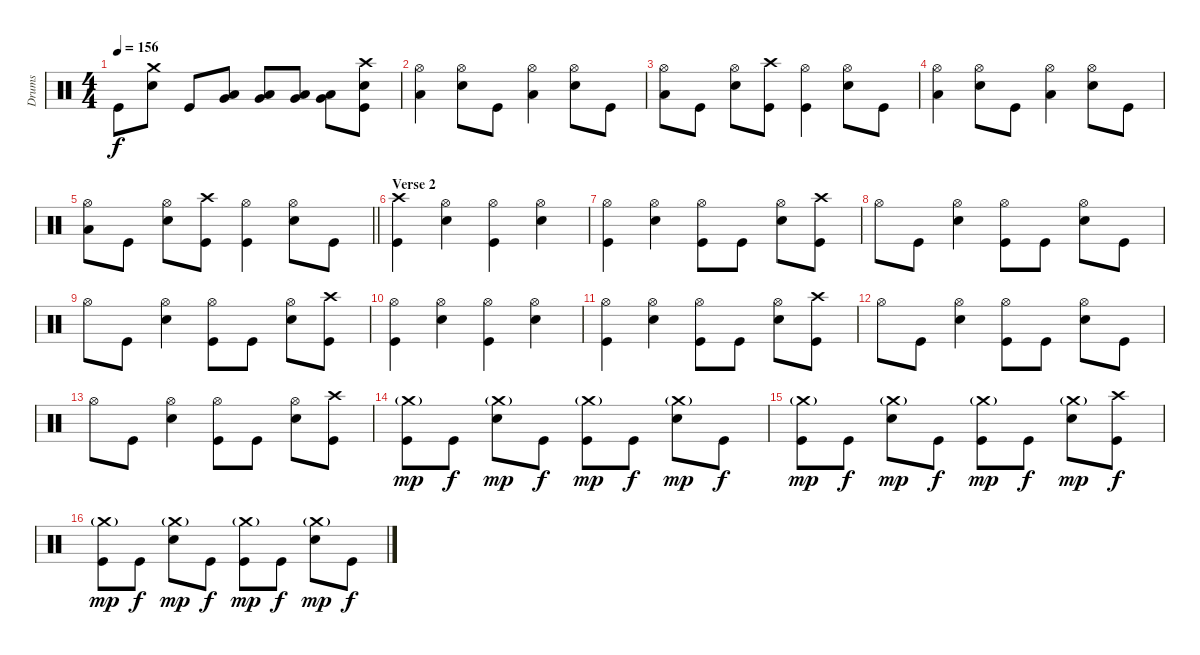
\track ("Drums" "Drums") {instrument percussion}
\staff {score}
\articulation defaults
\ts (4 4)
\tempo 156
\clef neutral
\ks c "Kick (hit)".8{dy f}
("Crash medium (hit)" "Snare (hit) 2").8 "Kick (hit)".8 ("Low Tom (hit)" "Very Low Tom (hit)").8 ("Low Tom (hit)" "Very Low Tom (hit)").8 ("Low Tom (hit)" "Very Low Tom (hit)").8 ("Low Tom (hit)" "Very Low Tom (hit)").8 ("Crash high (hit)" "Snare (hit) 2" "Kick (hit)").8 |
("Hi-Hat (open)" "Low Tom (hit)").4 ("Hi-Hat (open)" "Snare (hit) 2").8 "Kick (hit)".8 ("Hi-Hat (open)" "Low Tom (hit)").4 ("Hi-Hat (open)" "Snare (hit) 2").8 "Kick (hit)".8 |
("Hi-Hat (open)" "Low Tom (hit)").8 "Kick (hit)".8 ("Hi-Hat (open)" "Snare (hit) 2").8 ("Crash high (hit)" "Kick (hit)").8 ("Hi-Hat (open)" "Kick (hit)").4 ("Hi-Hat (open)" "Snare (hit) 2").8 "Kick (hit)".8 |
("Hi-Hat (open)" "Low Tom (hit)").4 ("Hi-Hat (open)" "Snare (hit) 2").8 "Kick (hit)".8 ("Hi-Hat (open)" "Low Tom (hit)").4 ("Hi-Hat (open)" "Snare (hit) 2").8 "Kick (hit)".8 |
\barLineRight lightlight
("Hi-Hat (open)" "Low Tom (hit)").8 "Kick (hit)".8 ("Hi-Hat (open)" "Snare (hit) 2").8 ("Crash high (hit)" "Kick (hit)").8 ("Hi-Hat (open)" "Kick (hit)").4 ("Hi-Hat (open)" "Snare (hit) 2").8 "Kick (hit)".8 |
\section ("" "Verse 2")
("Crash high (hit)" "Kick (hit)").4 ("Hi-Hat (open)" "Snare (hit) 2").4 ("Hi-Hat (open)" "Kick (hit)").4 ("Hi-Hat (open)" "Snare (hit) 2").4 |
("Hi-Hat (open)" "Kick (hit)").4 ("Hi-Hat (open)" "Snare (hit) 2").4 ("Hi-Hat (open)" "Kick (hit)").8 "Kick (hit)".8 ("Hi-Hat (open)" "Snare (hit) 2").8 ("Crash high (hit)" "Kick (hit)").8 |
"Hi-Hat (open)".8 "Kick (hit)".8 ("Hi-Hat (open)" "Snare (hit) 2").4 ("Hi-Hat (open)" "Kick (hit)").8 "Kick (hit)".8 ("Hi-Hat (open)" "Snare (hit) 2").8 "Kick (hit)".8 |
"Hi-Hat (open)".8 "Kick (hit)".8 ("Hi-Hat (open)" "Snare (hit) 2").4 ("Hi-Hat (open)" "Kick (hit)").8 "Kick (hit)".8 ("Hi-Hat (open)" "Snare (hit) 2").8 ("Crash high (hit)" "Kick (hit)").8 |
("Hi-Hat (open)" "Kick (hit)").4 ("Hi-Hat (open)" "Snare (hit) 2").4 ("Hi-Hat (open)" "Kick (hit)").4 ("Hi-Hat (open)" "Snare (hit) 2").4 |
("Hi-Hat (open)" "Kick (hit)").4 ("Hi-Hat (open)" "Snare (hit) 2").4 ("Hi-Hat (open)" "Kick (hit)").8 "Kick (hit)".8 ("Hi-Hat (open)" "Snare (hit) 2").8 ("Crash high (hit)" "Kick (hit)").8 |
"Hi-Hat (open)".8 "Kick (hit)".8 ("Hi-Hat (open)" "Snare (hit) 2").4 ("Hi-Hat (open)" "Kick (hit)").8 "Kick (hit)".8 ("Hi-Hat (open)" "Snare (hit) 2").8 "Kick (hit)".8 |
"Hi-Hat (open)".8 "Kick (hit)".8 ("Hi-Hat (open)" "Snare (hit) 2").4 ("Hi-Hat (open)" "Kick (hit)").8 "Kick (hit)".8 ("Hi-Hat (open)" "Snare (hit) 2").8 ("Crash high (hit)" "Kick (hit)").8 |
("Crash medium (hit)"{g} "Kick (hit)").8{dy mp} "Kick (hit)".8{dy f} ("Crash medium (hit)"{g} "Snare (hit) 2").8{dy mp} "Kick (hit)".8{dy f} ("Crash medium (hit)"{g} "Kick (hit)").8{dy mp} "Kick (hit)".8{dy f} ("Crash medium (hit)"{g} "Snare (hit) 2").8{dy mp} "Kick (hit)".8{dy f} |
("Crash medium (hit)"{g} "Kick (hit)").8{dy mp} "Kick (hit)".8{dy f} ("Crash medium (hit)"{g} "Snare (hit) 2").8{dy mp} "Kick (hit)".8{dy f} ("Crash medium (hit)"{g} "Kick (hit)").8{dy mp} "Kick (hit)".8{dy f} ("Crash medium (hit)"{g} "Snare (hit) 2").8{dy mp} ("Crash high (hit)" "Kick (hit)").8{dy f} |
("Crash medium (hit)"{g} "Kick (hit)").8{dy mp} "Kick (hit)".8{dy f} ("Crash medium (hit)"{g} "Snare (hit) 2").8{dy mp} "Kick (hit)".8{dy f} ("Crash medium (hit)"{g} "Kick (hit)").8{dy mp} "Kick (hit)".8{dy f} ("Crash medium (hit)"{g} "Snare (hit) 2").8{dy mp} "Kick (hit)".8{dy f}
